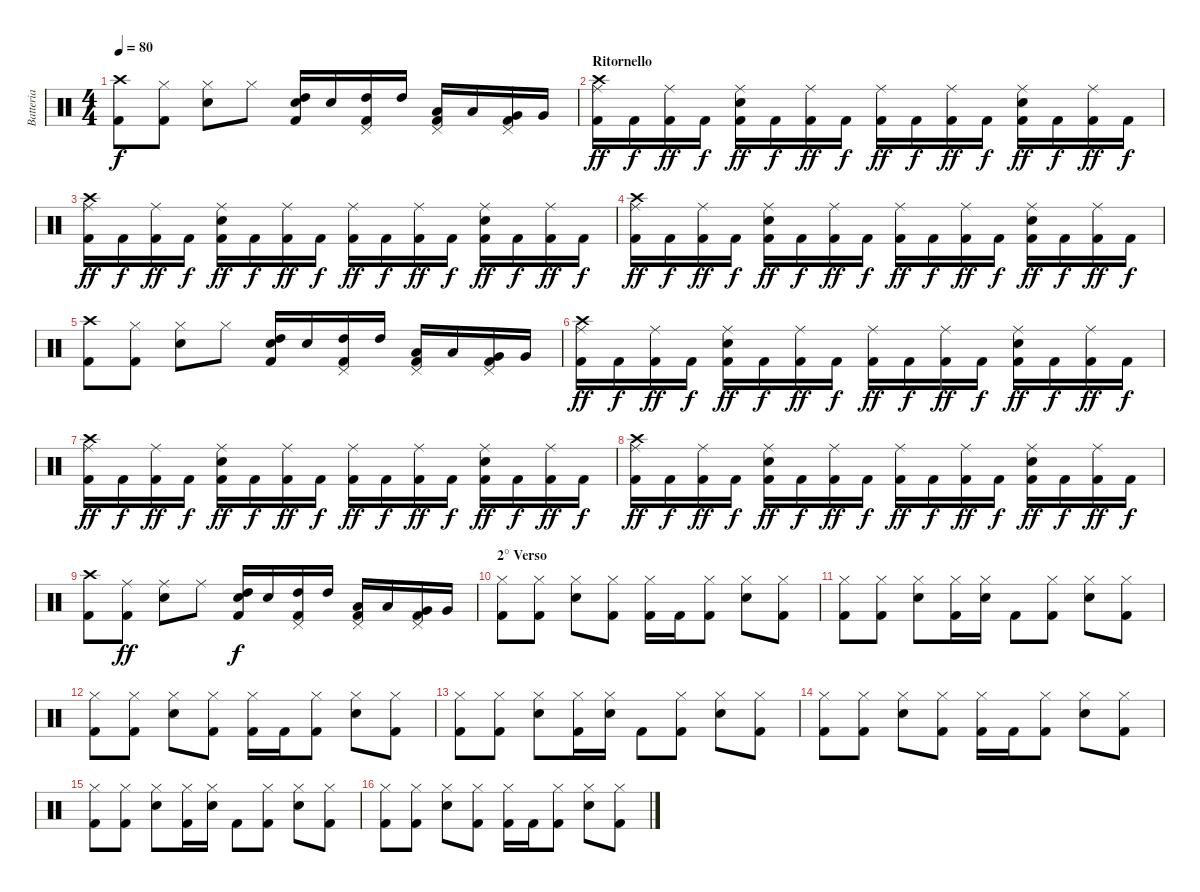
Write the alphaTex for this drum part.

\track ("Batteria" "Batteria") {instrument percussion}
\staff {score}
\articulation defaults
\ts (4 4)
\tempo 80
\clef neutral
\ks c
("Crash high (hit)" "Kick (hit) 2").8{dy f} ("Hi-Hat (closed)" "Kick (hit) 2").8 ("Hi-Hat (closed)" "Electric Snare (hit)").8 "Hi-Hat (closed)".8 ("High Tom (hit)" "Electric Snare (hit)" "Kick (hit) 2").16 "Electric Snare (hit)".16 ("Pedal Hi-Hat (hit)" "High Tom (hit)" "Kick (hit) 2").16 "High Tom (hit)".16 ("Pedal Hi-Hat (hit)" "Low Tom (hit)" "Kick (hit) 2").16 "Low Tom (hit)".16 ("Pedal Hi-Hat (hit)" "Very Low Tom (hit)" "Kick (hit) 2").16 "Very Low Tom (hit)".16 |
\section ("" "Ritornello")
("Crash high (hit)" "Ride (middle)" "Kick (hit) 2").16{dy ff} "Kick (hit) 2".16{dy f} ("Ride (middle)" "Kick (hit) 2").16{dy ff} "Kick (hit) 2".16{dy f} ("Ride (middle)" "Electric Snare (hit)" "Kick (hit) 2").16{dy ff} "Kick (hit) 2".16{dy f} ("Ride (middle)" "Kick (hit) 2").16{dy ff} "Kick (hit) 2".16{dy f} ("Ride (middle)" "Kick (hit) 2").16{dy ff} "Kick (hit) 2".16{dy f} ("Ride (middle)" "Kick (hit) 2").16{dy ff} "Kick (hit) 2".16{dy f} ("Ride (middle)" "Electric Snare (hit)" "Kick (hit) 2").16{dy ff} "Kick (hit) 2".16{dy f} ("Ride (middle)" "Kick (hit) 2").16{dy ff} "Kick (hit) 2".16{dy f} |
("Crash high (hit)" "Ride (middle)" "Kick (hit) 2").16{dy ff} "Kick (hit) 2".16{dy f} ("Ride (middle)" "Kick (hit) 2").16{dy ff} "Kick (hit) 2".16{dy f} ("Ride (middle)" "Electric Snare (hit)" "Kick (hit) 2").16{dy ff} "Kick (hit) 2".16{dy f} ("Ride (middle)" "Kick (hit) 2").16{dy ff} "Kick (hit) 2".16{dy f} ("Ride (middle)" "Kick (hit) 2").16{dy ff} "Kick (hit) 2".16{dy f} ("Ride (middle)" "Kick (hit) 2").16{dy ff} "Kick (hit) 2".16{dy f} ("Ride (middle)" "Electric Snare (hit)" "Kick (hit) 2").16{dy ff} "Kick (hit) 2".16{dy f} ("Ride (middle)" "Kick (hit) 2").16{dy ff} "Kick (hit) 2".16{dy f} |
("Crash high (hit)" "Ride (middle)" "Kick (hit) 2").16{dy ff} "Kick (hit) 2".16{dy f} ("Ride (middle)" "Kick (hit) 2").16{dy ff} "Kick (hit) 2".16{dy f} ("Ride (middle)" "Electric Snare (hit)" "Kick (hit) 2").16{dy ff} "Kick (hit) 2".16{dy f} ("Ride (middle)" "Kick (hit) 2").16{dy ff} "Kick (hit) 2".16{dy f} ("Ride (middle)" "Kick (hit) 2").16{dy ff} "Kick (hit) 2".16{dy f} ("Ride (middle)" "Kick (hit) 2").16{dy ff} "Kick (hit) 2".16{dy f} ("Ride (middle)" "Electric Snare (hit)" "Kick (hit) 2").16{dy ff} "Kick (hit) 2".16{dy f} ("Ride (middle)" "Kick (hit) 2").16{dy ff} "Kick (hit) 2".16{dy f} |
("Crash high (hit)" "Kick (hit) 2").8 ("Hi-Hat (closed)" "Kick (hit) 2").8 ("Hi-Hat (closed)" "Electric Snare (hit)").8 "Hi-Hat (closed)".8 ("High Tom (hit)" "Electric Snare (hit)" "Kick (hit) 2").16 "Electric Snare (hit)".16 ("Pedal Hi-Hat (hit)" "High Tom (hit)" "Kick (hit) 2").16 "High Tom (hit)".16 ("Pedal Hi-Hat (hit)" "Low Tom (hit)" "Kick (hit) 2").16 "Low Tom (hit)".16 ("Pedal Hi-Hat (hit)" "Very Low Tom (hit)" "Kick (hit) 2").16 "Very Low Tom (hit)".16 |
("Crash high (hit)" "Ride (middle)" "Kick (hit) 2").16{dy ff} "Kick (hit) 2".16{dy f} ("Ride (middle)" "Kick (hit) 2").16{dy ff} "Kick (hit) 2".16{dy f} ("Ride (middle)" "Electric Snare (hit)" "Kick (hit) 2").16{dy ff} "Kick (hit) 2".16{dy f} ("Ride (middle)" "Kick (hit) 2").16{dy ff} "Kick (hit) 2".16{dy f} ("Ride (middle)" "Kick (hit) 2").16{dy ff} "Kick (hit) 2".16{dy f} ("Ride (middle)" "Kick (hit) 2").16{dy ff} "Kick (hit) 2".16{dy f} ("Ride (middle)" "Electric Snare (hit)" "Kick (hit) 2").16{dy ff} "Kick (hit) 2".16{dy f} ("Ride (middle)" "Kick (hit) 2").16{dy ff} "Kick (hit) 2".16{dy f} |
("Crash high (hit)" "Ride (middle)" "Kick (hit) 2").16{dy ff} "Kick (hit) 2".16{dy f} ("Ride (middle)" "Kick (hit) 2").16{dy ff} "Kick (hit) 2".16{dy f} ("Ride (middle)" "Electric Snare (hit)" "Kick (hit) 2").16{dy ff} "Kick (hit) 2".16{dy f} ("Ride (middle)" "Kick (hit) 2").16{dy ff} "Kick (hit) 2".16{dy f} ("Ride (middle)" "Kick (hit) 2").16{dy ff} "Kick (hit) 2".16{dy f} ("Ride (middle)" "Kick (hit) 2").16{dy ff} "Kick (hit) 2".16{dy f} ("Ride (middle)" "Electric Snare (hit)" "Kick (hit) 2").16{dy ff} "Kick (hit) 2".16{dy f} ("Ride (middle)" "Kick (hit) 2").16{dy ff} "Kick (hit) 2".16{dy f} |
("Crash high (hit)" "Ride (middle)" "Kick (hit) 2").16{dy ff} "Kick (hit) 2".16{dy f} ("Ride (middle)" "Kick (hit) 2").16{dy ff} "Kick (hit) 2".16{dy f} ("Ride (middle)" "Electric Snare (hit)" "Kick (hit) 2").16{dy ff} "Kick (hit) 2".16{dy f} ("Ride (middle)" "Kick (hit) 2").16{dy ff} "Kick (hit) 2".16{dy f} ("Ride (middle)" "Kick (hit) 2").16{dy ff} "Kick (hit) 2".16{dy f} ("Ride (middle)" "Kick (hit) 2").16{dy ff} "Kick (hit) 2".16{dy f} ("Ride (middle)" "Electric Snare (hit)" "Kick (hit) 2").16{dy ff} "Kick (hit) 2".16{dy f} ("Ride (middle)" "Kick (hit) 2").16{dy ff} "Kick (hit) 2".16{dy f} |
("Crash high (hit)" "Kick (hit) 2").8 ("Ride (middle)" "Kick (hit) 2").8{dy ff} ("Ride (middle)" "Electric Snare (hit)").8 "Ride (middle)".8 ("High Tom (hit)" "Electric Snare (hit)" "Kick (hit) 2").16{dy f} "Electric Snare (hit)".16 ("Pedal Hi-Hat (hit)" "High Tom (hit)" "Kick (hit) 2").16 "High Tom (hit)".16 ("Pedal Hi-Hat (hit)" "Low Tom (hit)" "Kick (hit) 2").16 "Low Tom (hit)".16 ("Pedal Hi-Hat (hit)" "Very Low Tom (hit)" "Kick (hit) 2").16 "Very Low Tom (hit)".16 |
\section ("" "2° Verso")
("Hi-Hat (closed)" "Kick (hit) 2").8 ("Hi-Hat (closed)" "Kick (hit) 2").8 ("Hi-Hat (closed)" "Electric Snare (hit)").8 ("Hi-Hat (closed)" "Kick (hit) 2").8 ("Hi-Hat (closed)" "Kick (hit) 2").16 "Kick (hit) 2".16 ("Hi-Hat (closed)" "Kick (hit) 2").8 ("Hi-Hat (closed)" "Electric Snare (hit)").8 ("Hi-Hat (closed)" "Kick (hit) 2").8 |
("Hi-Hat (closed)" "Kick (hit) 2").8 ("Hi-Hat (closed)" "Kick (hit) 2").8 ("Hi-Hat (closed)" "Electric Snare (hit)").8 ("Hi-Hat (closed)" "Kick (hit) 2").16 ("Hi-Hat (closed)" "Electric Snare (hit)").16 "Kick (hit) 2".8 ("Hi-Hat (closed)" "Kick (hit) 2").8 ("Hi-Hat (closed)" "Electric Snare (hit)").8 ("Hi-Hat (closed)" "Kick (hit) 2").8 |
("Hi-Hat (closed)" "Kick (hit) 2").8 ("Hi-Hat (closed)" "Kick (hit) 2").8 ("Hi-Hat (closed)" "Electric Snare (hit)").8 ("Hi-Hat (closed)" "Kick (hit) 2").8 ("Hi-Hat (closed)" "Kick (hit) 2").16 "Kick (hit) 2".16 ("Hi-Hat (closed)" "Kick (hit) 2").8 ("Hi-Hat (closed)" "Electric Snare (hit)").8 ("Hi-Hat (closed)" "Kick (hit) 2").8 |
("Hi-Hat (closed)" "Kick (hit) 2").8 ("Hi-Hat (closed)" "Kick (hit) 2").8 ("Hi-Hat (closed)" "Electric Snare (hit)").8 ("Hi-Hat (closed)" "Kick (hit) 2").16 ("Hi-Hat (closed)" "Electric Snare (hit)").16 "Kick (hit) 2".8 ("Hi-Hat (closed)" "Kick (hit) 2").8 ("Hi-Hat (closed)" "Electric Snare (hit)").8 ("Hi-Hat (closed)" "Kick (hit) 2").8 |
("Hi-Hat (closed)" "Kick (hit) 2").8 ("Hi-Hat (closed)" "Kick (hit) 2").8 ("Hi-Hat (closed)" "Electric Snare (hit)").8 ("Hi-Hat (closed)" "Kick (hit) 2").8 ("Hi-Hat (closed)" "Kick (hit) 2").16 "Kick (hit) 2".16 ("Hi-Hat (closed)" "Kick (hit) 2").8 ("Hi-Hat (closed)" "Electric Snare (hit)").8 ("Hi-Hat (closed)" "Kick (hit) 2").8 |
("Hi-Hat (closed)" "Kick (hit) 2").8 ("Hi-Hat (closed)" "Kick (hit) 2").8 ("Hi-Hat (closed)" "Electric Snare (hit)").8 ("Hi-Hat (closed)" "Kick (hit) 2").16 ("Hi-Hat (closed)" "Electric Snare (hit)").16 "Kick (hit) 2".8 ("Hi-Hat (closed)" "Kick (hit) 2").8 ("Hi-Hat (closed)" "Electric Snare (hit)").8 ("Hi-Hat (closed)" "Kick (hit) 2").8 |
("Hi-Hat (closed)" "Kick (hit) 2").8 ("Hi-Hat (closed)" "Kick (hit) 2").8 ("Hi-Hat (closed)" "Electric Snare (hit)").8 ("Hi-Hat (closed)" "Kick (hit) 2").8 ("Hi-Hat (closed)" "Kick (hit) 2").16 "Kick (hit) 2".16 ("Hi-Hat (closed)" "Kick (hit) 2").8 ("Hi-Hat (closed)" "Electric Snare (hit)").8 ("Hi-Hat (closed)" "Kick (hit) 2").8
